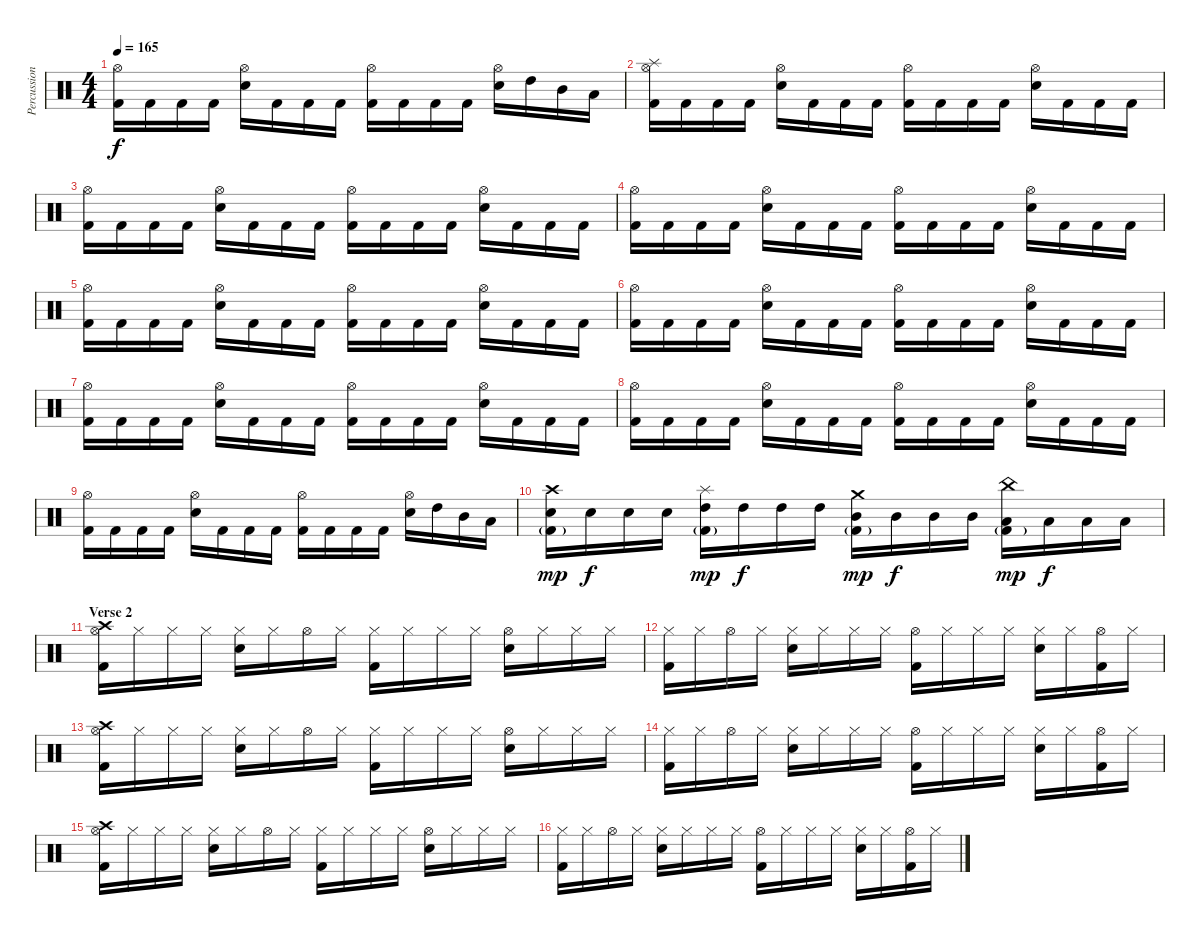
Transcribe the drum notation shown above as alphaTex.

\track ("Percussions" "Percussion") {instrument percussion}
\staff {score}
\articulation defaults
\ts (4 4)
\tempo 165
\clef neutral
\ks c
("Hi-Hat (open)" "Kick (hit) 2").16{dy f} "Kick (hit) 2".16 "Kick (hit) 2".16 "Kick (hit) 2".16 ("Hi-Hat (open)" "Electric Snare (hit)").16 "Kick (hit) 2".16 "Kick (hit) 2".16 "Kick (hit) 2".16 ("Hi-Hat (open)" "Kick (hit) 2").16 "Kick (hit) 2".16 "Kick (hit) 2".16 "Kick (hit) 2".16 ("Hi-Hat (open)" "Electric Snare (hit)").16 "High Tom (hit)".16 "Mid Tom (hit)".16 "Low Tom (hit)".16 |
("Splash (hit)" "Hi-Hat (open)" "Kick (hit) 2").16 "Kick (hit) 2".16 "Kick (hit) 2".16 "Kick (hit) 2".16 ("Hi-Hat (open)" "Electric Snare (hit)").16 "Kick (hit) 2".16 "Kick (hit) 2".16 "Kick (hit) 2".16 ("Hi-Hat (open)" "Kick (hit) 2").16 "Kick (hit) 2".16 "Kick (hit) 2".16 "Kick (hit) 2".16 ("Hi-Hat (open)" "Electric Snare (hit)").16 "Kick (hit) 2".16 "Kick (hit) 2".16 "Kick (hit) 2".16 |
("Hi-Hat (open)" "Kick (hit) 2").16 "Kick (hit) 2".16 "Kick (hit) 2".16 "Kick (hit) 2".16 ("Hi-Hat (open)" "Electric Snare (hit)").16 "Kick (hit) 2".16 "Kick (hit) 2".16 "Kick (hit) 2".16 ("Hi-Hat (open)" "Kick (hit) 2").16 "Kick (hit) 2".16 "Kick (hit) 2".16 "Kick (hit) 2".16 ("Hi-Hat (open)" "Electric Snare (hit)").16 "Kick (hit) 2".16 "Kick (hit) 2".16 "Kick (hit) 2".16 |
("Hi-Hat (open)" "Kick (hit) 2").16 "Kick (hit) 2".16 "Kick (hit) 2".16 "Kick (hit) 2".16 ("Hi-Hat (open)" "Electric Snare (hit)").16 "Kick (hit) 2".16 "Kick (hit) 2".16 "Kick (hit) 2".16 ("Hi-Hat (open)" "Kick (hit) 2").16 "Kick (hit) 2".16 "Kick (hit) 2".16 "Kick (hit) 2".16 ("Hi-Hat (open)" "Electric Snare (hit)").16 "Kick (hit) 2".16 "Kick (hit) 2".16 "Kick (hit) 2".16 |
("Hi-Hat (open)" "Kick (hit) 2").16 "Kick (hit) 2".16 "Kick (hit) 2".16 "Kick (hit) 2".16 ("Hi-Hat (open)" "Electric Snare (hit)").16 "Kick (hit) 2".16 "Kick (hit) 2".16 "Kick (hit) 2".16 ("Hi-Hat (open)" "Kick (hit) 2").16 "Kick (hit) 2".16 "Kick (hit) 2".16 "Kick (hit) 2".16 ("Hi-Hat (open)" "Electric Snare (hit)").16 "Kick (hit) 2".16 "Kick (hit) 2".16 "Kick (hit) 2".16 |
("Hi-Hat (open)" "Kick (hit) 2").16 "Kick (hit) 2".16 "Kick (hit) 2".16 "Kick (hit) 2".16 ("Hi-Hat (open)" "Electric Snare (hit)").16 "Kick (hit) 2".16 "Kick (hit) 2".16 "Kick (hit) 2".16 ("Hi-Hat (open)" "Kick (hit) 2").16 "Kick (hit) 2".16 "Kick (hit) 2".16 "Kick (hit) 2".16 ("Hi-Hat (open)" "Electric Snare (hit)").16 "Kick (hit) 2".16 "Kick (hit) 2".16 "Kick (hit) 2".16 |
("Hi-Hat (open)" "Kick (hit) 2").16 "Kick (hit) 2".16 "Kick (hit) 2".16 "Kick (hit) 2".16 ("Hi-Hat (open)" "Electric Snare (hit)").16 "Kick (hit) 2".16 "Kick (hit) 2".16 "Kick (hit) 2".16 ("Hi-Hat (open)" "Kick (hit) 2").16 "Kick (hit) 2".16 "Kick (hit) 2".16 "Kick (hit) 2".16 ("Hi-Hat (open)" "Electric Snare (hit)").16 "Kick (hit) 2".16 "Kick (hit) 2".16 "Kick (hit) 2".16 |
("Hi-Hat (open)" "Kick (hit) 2").16 "Kick (hit) 2".16 "Kick (hit) 2".16 "Kick (hit) 2".16 ("Hi-Hat (open)" "Electric Snare (hit)").16 "Kick (hit) 2".16 "Kick (hit) 2".16 "Kick (hit) 2".16 ("Hi-Hat (open)" "Kick (hit) 2").16 "Kick (hit) 2".16 "Kick (hit) 2".16 "Kick (hit) 2".16 ("Hi-Hat (open)" "Electric Snare (hit)").16 "Kick (hit) 2".16 "Kick (hit) 2".16 "Kick (hit) 2".16 |
("Hi-Hat (open)" "Kick (hit) 2").16 "Kick (hit) 2".16 "Kick (hit) 2".16 "Kick (hit) 2".16 ("Hi-Hat (open)" "Electric Snare (hit)").16 "Kick (hit) 2".16 "Kick (hit) 2".16 "Kick (hit) 2".16 ("Hi-Hat (open)" "Kick (hit) 2").16 "Kick (hit) 2".16 "Kick (hit) 2".16 "Kick (hit) 2".16 ("Hi-Hat (open)" "Electric Snare (hit)").16 "High Tom (hit)".16 "Mid Tom (hit)".16 "Low Tom (hit)".16 |
("Crash high (hit)" "Electric Snare (hit)" "Kick (hit) 2"{g}).16{dy mp} "Electric Snare (hit)".16{dy f} "Electric Snare (hit)".16 "Electric Snare (hit)".16 ("Splash (hit)" "High Tom (hit)" "Kick (hit) 2"{g}).16{dy mp} "High Tom (hit)".16{dy f} "High Tom (hit)".16 "High Tom (hit)".16 ("Crash medium (hit)" "Mid Tom (hit)" "Kick (hit) 2"{g}).16{dy mp} "Mid Tom (hit)".16{dy f} "Mid Tom (hit)".16 "Mid Tom (hit)".16 ("China (hit)" "Low Tom (hit)" "Kick (hit) 2"{g}).16{dy mp} "Low Tom (hit)".16{dy f} "Low Tom (hit)".16 "Low Tom (hit)".16 |
\section ("" "Verse 2")
("Hi-Hat (open)" "Crash high (hit)" "Kick (hit) 2").16 "Hi-Hat (closed)".16 "Hi-Hat (closed)".16 "Hi-Hat (closed)".16 ("Hi-Hat (closed)" "Electric Snare (hit)").16 "Hi-Hat (closed)".16 "Hi-Hat (open)".16 "Hi-Hat (closed)".16 ("Hi-Hat (closed)" "Kick (hit) 2").16 "Hi-Hat (closed)".16 "Hi-Hat (closed)".16 "Hi-Hat (closed)".16 ("Hi-Hat (open)" "Electric Snare (hit)").16 "Hi-Hat (closed)".16 "Hi-Hat (closed)".16 "Hi-Hat (closed)".16 |
("Hi-Hat (closed)" "Kick (hit) 2").16 "Hi-Hat (closed)".16 "Hi-Hat (open)".16 "Hi-Hat (closed)".16 ("Hi-Hat (closed)" "Electric Snare (hit)").16 "Hi-Hat (closed)".16 "Hi-Hat (closed)".16 "Hi-Hat (closed)".16 ("Hi-Hat (open)" "Kick (hit) 2").16 "Hi-Hat (closed)".16 "Hi-Hat (closed)".16 "Hi-Hat (closed)".16 ("Hi-Hat (closed)" "Electric Snare (hit)").16 "Hi-Hat (closed)".16 ("Hi-Hat (open)" "Kick (hit) 2").16 "Hi-Hat (closed)".16 |
("Hi-Hat (open)" "Crash high (hit)" "Kick (hit) 2").16 "Hi-Hat (closed)".16 "Hi-Hat (closed)".16 "Hi-Hat (closed)".16 ("Hi-Hat (closed)" "Electric Snare (hit)").16 "Hi-Hat (closed)".16 "Hi-Hat (open)".16 "Hi-Hat (closed)".16 ("Hi-Hat (closed)" "Kick (hit) 2").16 "Hi-Hat (closed)".16 "Hi-Hat (closed)".16 "Hi-Hat (closed)".16 ("Hi-Hat (open)" "Electric Snare (hit)").16 "Hi-Hat (closed)".16 "Hi-Hat (closed)".16 "Hi-Hat (closed)".16 |
("Hi-Hat (closed)" "Kick (hit) 2").16 "Hi-Hat (closed)".16 "Hi-Hat (open)".16 "Hi-Hat (closed)".16 ("Hi-Hat (closed)" "Electric Snare (hit)").16 "Hi-Hat (closed)".16 "Hi-Hat (closed)".16 "Hi-Hat (closed)".16 ("Hi-Hat (open)" "Kick (hit) 2").16 "Hi-Hat (closed)".16 "Hi-Hat (closed)".16 "Hi-Hat (closed)".16 ("Hi-Hat (closed)" "Electric Snare (hit)").16 "Hi-Hat (closed)".16 ("Hi-Hat (open)" "Kick (hit) 2").16 "Hi-Hat (closed)".16 |
("Hi-Hat (open)" "Crash high (hit)" "Kick (hit) 2").16 "Hi-Hat (closed)".16 "Hi-Hat (closed)".16 "Hi-Hat (closed)".16 ("Hi-Hat (closed)" "Electric Snare (hit)").16 "Hi-Hat (closed)".16 "Hi-Hat (open)".16 "Hi-Hat (closed)".16 ("Hi-Hat (closed)" "Kick (hit) 2").16 "Hi-Hat (closed)".16 "Hi-Hat (closed)".16 "Hi-Hat (closed)".16 ("Hi-Hat (open)" "Electric Snare (hit)").16 "Hi-Hat (closed)".16 "Hi-Hat (closed)".16 "Hi-Hat (closed)".16 |
("Hi-Hat (closed)" "Kick (hit) 2").16 "Hi-Hat (closed)".16 "Hi-Hat (open)".16 "Hi-Hat (closed)".16 ("Hi-Hat (closed)" "Electric Snare (hit)").16 "Hi-Hat (closed)".16 "Hi-Hat (closed)".16 "Hi-Hat (closed)".16 ("Hi-Hat (open)" "Kick (hit) 2").16 "Hi-Hat (closed)".16 "Hi-Hat (closed)".16 "Hi-Hat (closed)".16 ("Hi-Hat (closed)" "Electric Snare (hit)").16 "Hi-Hat (closed)".16 ("Hi-Hat (open)" "Kick (hit) 2").16 "Hi-Hat (closed)".16
